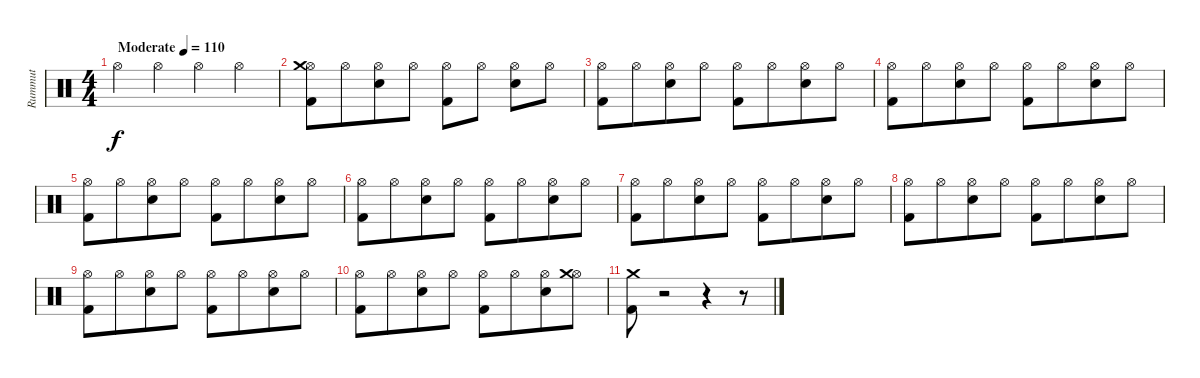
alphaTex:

\track ("Rummut" "Rummut") {instrument percussion}
\staff {score}
\articulation defaults
\ts (4 4)
\tempo (110 "Moderate")
\clef neutral
\ks c "Hi-Hat (open)".4{dy f} "Hi-Hat (open)".4 "Hi-Hat (open)".4 "Hi-Hat (open)".4
|
("Kick (hit) 2" "Hi-Hat (open)" "Crash medium (hit)").8 "Hi-Hat (open)".8{beam merge} ("Electric Snare (hit)" "Hi-Hat (open)").8 "Hi-Hat (open)".8 ("Kick (hit) 2" "Hi-Hat (open)").8 "Hi-Hat (open)".8 ("Electric Snare (hit)" "Hi-Hat (open)").8 "Hi-Hat (open)".8 |
("Kick (hit) 2" "Hi-Hat (open)").8 "Hi-Hat (open)".8{beam merge} ("Electric Snare (hit)" "Hi-Hat (open)").8{beam merge} "Hi-Hat (open)".8 ("Kick (hit) 2" "Hi-Hat (open)").8{beam merge} "Hi-Hat (open)".8{beam merge} ("Electric Snare (hit)" "Hi-Hat (open)").8{beam merge} "Hi-Hat (open)".8 |
("Kick (hit) 2" "Hi-Hat (open)").8 "Hi-Hat (open)".8{beam merge} ("Electric Snare (hit)" "Hi-Hat (open)").8{beam merge} "Hi-Hat (open)".8 ("Kick (hit) 2" "Hi-Hat (open)").8{beam merge} "Hi-Hat (open)".8{beam merge} ("Electric Snare (hit)" "Hi-Hat (open)").8{beam merge} "Hi-Hat (open)".8 |
("Kick (hit) 2" "Hi-Hat (open)").8 "Hi-Hat (open)".8{beam merge} ("Electric Snare (hit)" "Hi-Hat (open)").8{beam merge} "Hi-Hat (open)".8 ("Kick (hit) 2" "Hi-Hat (open)").8{beam merge} "Hi-Hat (open)".8{beam merge} ("Electric Snare (hit)" "Hi-Hat (open)").8{beam merge} "Hi-Hat (open)".8 |
("Kick (hit) 2" "Hi-Hat (open)").8 "Hi-Hat (open)".8{beam merge} ("Electric Snare (hit)" "Hi-Hat (open)").8{beam merge} "Hi-Hat (open)".8 ("Kick (hit) 2" "Hi-Hat (open)").8{beam merge} "Hi-Hat (open)".8{beam merge} ("Electric Snare (hit)" "Hi-Hat (open)").8{beam merge} "Hi-Hat (open)".8 |
("Kick (hit) 2" "Hi-Hat (open)").8 "Hi-Hat (open)".8{beam merge} ("Electric Snare (hit)" "Hi-Hat (open)").8{beam merge} "Hi-Hat (open)".8 ("Kick (hit) 2" "Hi-Hat (open)").8{beam merge} "Hi-Hat (open)".8{beam merge} ("Electric Snare (hit)" "Hi-Hat (open)").8{beam merge} "Hi-Hat (open)".8 |
("Kick (hit) 2" "Hi-Hat (open)").8 "Hi-Hat (open)".8{beam merge} ("Electric Snare (hit)" "Hi-Hat (open)").8{beam merge} "Hi-Hat (open)".8 ("Kick (hit) 2" "Hi-Hat (open)").8{beam merge} "Hi-Hat (open)".8{beam merge} ("Electric Snare (hit)" "Hi-Hat (open)").8{beam merge} "Hi-Hat (open)".8 |
("Kick (hit) 2" "Hi-Hat (open)").8 "Hi-Hat (open)".8{beam merge} ("Electric Snare (hit)" "Hi-Hat (open)").8{beam merge} "Hi-Hat (open)".8 ("Kick (hit) 2" "Hi-Hat (open)").8{beam merge} "Hi-Hat (open)".8{beam merge} ("Electric Snare (hit)" "Hi-Hat (open)").8{beam merge} "Hi-Hat (open)".8 |
("Kick (hit) 2" "Hi-Hat (open)").8 "Hi-Hat (open)".8{beam merge} ("Electric Snare (hit)" "Hi-Hat (open)").8{beam merge} "Hi-Hat (open)".8 ("Kick (hit) 2" "Hi-Hat (open)").8{beam merge} "Hi-Hat (open)".8{beam merge} ("Electric Snare (hit)" "Hi-Hat (open)").8{beam merge} ("Hi-Hat (open)" "Crash medium (hit)").8 |
("Kick (hit) 2" "Crash medium (hit)").8{beam merge} r.2 r.4 r.8
